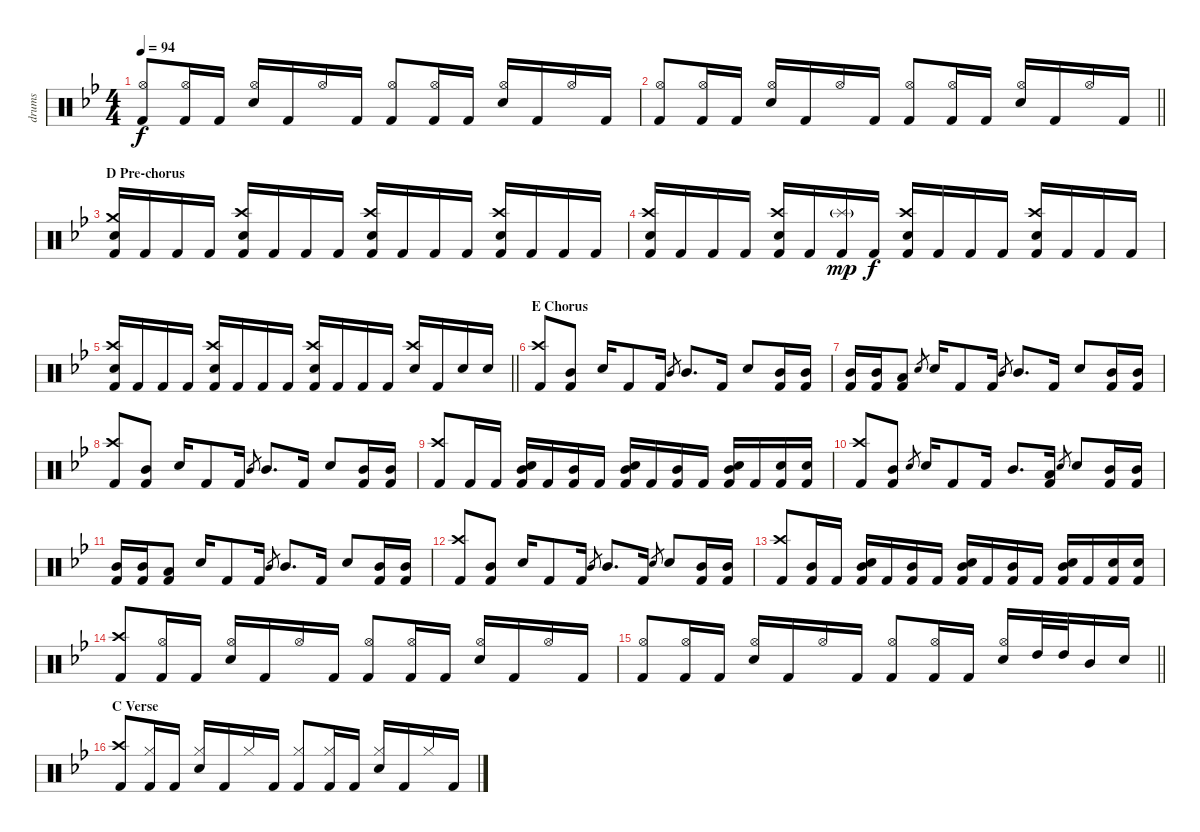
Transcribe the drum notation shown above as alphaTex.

\track ("drums" "drums") {instrument percussion}
\staff {score}
\articulation defaults
\ts (4 4)
\tempo 94
\clef neutral
\ks gminor
("Hi-Hat (open)" "Kick (hit) 2").8{dy f beam Up} ("Hi-Hat (open)" "Kick (hit) 2").16{beam Up} "Kick (hit) 2".16{beam Up} ("Snare (hit) 2" "Hi-Hat (open)").16{beam Up} "Kick (hit) 2".16{beam Up} "Hi-Hat (open)".16{beam Up} "Kick (hit) 2".16{beam Up} ("Hi-Hat (open)" "Kick (hit) 2").8{beam Up} ("Hi-Hat (open)" "Kick (hit) 2").16{beam Up} "Kick (hit) 2".16{beam Up} ("Snare (hit) 2" "Hi-Hat (open)").16{beam Up} "Kick (hit) 2".16{beam Up} "Hi-Hat (open)".16{beam Up} "Kick (hit) 2".16{beam Up} |
\barLineRight lightlight
("Hi-Hat (open)" "Kick (hit) 2").8{beam Up} ("Hi-Hat (open)" "Kick (hit) 2").16{beam Up} "Kick (hit) 2".16{beam Up} ("Snare (hit) 2" "Hi-Hat (open)").16{beam Up} "Kick (hit) 2".16{beam Up} "Hi-Hat (open)".16{beam Up} "Kick (hit) 2".16{beam Up} ("Hi-Hat (open)" "Kick (hit) 2").8{beam Up} ("Hi-Hat (open)" "Kick (hit) 2").16{beam Up} "Kick (hit) 2".16{beam Up} ("Snare (hit) 2" "Hi-Hat (open)").16{beam Up} "Kick (hit) 2".16{beam Up} "Hi-Hat (open)".16{beam Up} "Kick (hit) 2".16{beam Up} |
\section ("" "D Pre-chorus")
("Crash medium (hit)" "Snare (hit) 2" "Kick (hit) 2").16{beam Up} "Kick (hit) 2".16{beam Up} "Kick (hit) 2".16{beam Up} "Kick (hit) 2".16{beam Up} ("Crash high (hit)" "Snare (hit) 2" "Kick (hit) 2").16{beam Up} "Kick (hit) 2".16{beam Up} "Kick (hit) 2".16{beam Up} "Kick (hit) 2".16{beam Up} ("Crash high (hit)" "Snare (hit) 2" "Kick (hit) 2").16{beam Up} "Kick (hit) 2".16{beam Up} "Kick (hit) 2".16{beam Up} "Kick (hit) 2".16{beam Up} ("Crash high (hit)" "Snare (hit) 2" "Kick (hit) 2").16{beam Up} "Kick (hit) 2".16{beam Up} "Kick (hit) 2".16{beam Up} "Kick (hit) 2".16{beam Up} |
("Crash high (hit)" "Snare (hit) 2" "Kick (hit) 2").16{beam Up} "Kick (hit) 2".16{beam Up} "Kick (hit) 2".16{beam Up} "Kick (hit) 2".16{beam Up} ("Crash high (hit)" "Snare (hit) 2" "Kick (hit) 2").16{beam Up} "Kick (hit) 2".16{beam Up} ("Splash (hit)"{g} "Kick (hit) 2").16{dy mp beam Up} "Kick (hit) 2".16{dy f beam Up} ("Crash high (hit)" "Snare (hit) 2" "Kick (hit) 2").16{beam Up} "Kick (hit) 2".16{beam Up} "Kick (hit) 2".16{beam Up} "Kick (hit) 2".16{beam Up} ("Crash high (hit)" "Snare (hit) 2" "Kick (hit) 2").16{beam Up} "Kick (hit) 2".16{beam Up} "Kick (hit) 2".16{beam Up} "Kick (hit) 2".16{beam Up} |
\barLineRight lightlight
("Crash high (hit)" "Snare (hit) 2" "Kick (hit) 2").16{beam Up} "Kick (hit) 2".16{beam Up} "Kick (hit) 2".16{beam Up} "Kick (hit) 2".16{beam Up} ("Crash high (hit)" "Snare (hit) 2" "Kick (hit) 2").16{beam Up} "Kick (hit) 2".16{beam Up} "Kick (hit) 2".16{beam Up} "Kick (hit) 2".16{beam Up} ("Crash high (hit)" "Snare (hit) 2" "Kick (hit) 2").16{beam Up} "Kick (hit) 2".16{beam Up} "Kick (hit) 2".16{beam Up} "Kick (hit) 2".16{beam Up} ("Crash high (hit)" "Snare (hit) 2").16{beam Up} "Kick (hit) 2".16{beam Up} "Snare (hit) 2".16{beam Up} "Snare (hit) 2".16{beam Up} |
\section ("" "E Chorus")
("Crash high (hit)" "Kick (hit) 2").8{beam Up} ("Mid Tom (hit)" "Kick (hit) 2").8{beam Up} "Snare (hit) 2".16 "Kick (hit) 2".8 "Kick (hit) 2".16 "Mid Tom (hit)".8{gr} "Mid Tom (hit)".8{d beam Up} "Kick (hit) 2".16{beam Up} "Snare (hit) 2".8{beam Up} ("Mid Tom (hit)" "Kick (hit) 2").16{beam Up} ("Mid Tom (hit)" "Kick (hit) 2").16{beam Up} |
("Mid Tom (hit)" "Kick (hit) 2").16{beam Up} ("Mid Tom (hit)" "Kick (hit) 2").16{beam Up} ("Low Tom (hit)" "Kick (hit) 2").8{beam Up} "Snare (hit) 2".8{gr} "Snare (hit) 2".16 "Kick (hit) 2".8 "Kick (hit) 2".16 "Mid Tom (hit)".8{gr} "Mid Tom (hit)".8{d beam Up} "Kick (hit) 2".16{beam Up} "Snare (hit) 2".8{beam Up} ("Mid Tom (hit)" "Kick (hit) 2").16{beam Up} ("Mid Tom (hit)" "Kick (hit) 2").16{beam Up} |
("Crash high (hit)" "Kick (hit) 2").8{beam Up} ("Mid Tom (hit)" "Kick (hit) 2").8{beam Up} "Snare (hit) 2".16 "Kick (hit) 2".8 "Kick (hit) 2".16 "Mid Tom (hit)".8{gr} "Mid Tom (hit)".8{d beam Up} "Kick (hit) 2".16{beam Up} "Snare (hit) 2".8{beam Up} ("Mid Tom (hit)" "Kick (hit) 2").16{beam Up} ("Mid Tom (hit)" "Kick (hit) 2").16{beam Up} |
("Crash high (hit)" "Kick (hit) 2").8{beam Up} "Kick (hit) 2".16{beam Up} "Kick (hit) 2".16{beam Up} ("Mid Tom (hit)" "Snare (hit) 2" "Kick (hit) 2").16{beam Up} "Kick (hit) 2".16{beam Up} ("Mid Tom (hit)" "Kick (hit) 2").16{beam Up} "Kick (hit) 2".16{beam Up} ("Mid Tom (hit)" "Snare (hit) 2" "Kick (hit) 2").16{beam Up} "Kick (hit) 2".16{beam Up} ("Mid Tom (hit)" "Kick (hit) 2").16{beam Up} "Kick (hit) 2".16{beam Up} ("Mid Tom (hit)" "Snare (hit) 2" "Kick (hit) 2").16{beam Up} "Kick (hit) 2".16{beam Up} ("Snare (hit) 2" "Kick (hit) 2").16{beam Up} ("Snare (hit) 2" "Kick (hit) 2").16{beam Up} |
("Crash high (hit)" "Kick (hit) 2").8{beam Up} ("Mid Tom (hit)" "Kick (hit) 2").8{beam Up} "Snare (hit) 2".8{gr} "Snare (hit) 2".16 "Kick (hit) 2".8 "Kick (hit) 2".16 "Mid Tom (hit)".8{d beam Up} ("Low Tom (hit)" "Kick (hit) 2").16{beam Up} "Snare (hit) 2".8{gr} "Snare (hit) 2".8{beam Up} ("Mid Tom (hit)" "Kick (hit) 2").16{beam Up} ("Mid Tom (hit)" "Kick (hit) 2").16{beam Up} |
("Mid Tom (hit)" "Kick (hit) 2").16{beam Up} ("Mid Tom (hit)" "Kick (hit) 2").16{beam Up} ("Low Tom (hit)" "Kick (hit) 2").8{beam Up} "Snare (hit) 2".16 "Kick (hit) 2".8 "Kick (hit) 2".16 "Mid Tom (hit)".8{gr} "Mid Tom (hit)".8{d beam Up} "Kick (hit) 2".16{beam Up} "Snare (hit) 2".8{beam Up} ("Mid Tom (hit)" "Kick (hit) 2").16{beam Up} ("Mid Tom (hit)" "Kick (hit) 2").16{beam Up} |
("Crash high (hit)" "Kick (hit) 2").8{beam Up} ("Mid Tom (hit)" "Kick (hit) 2").8{beam Up} "Snare (hit) 2".16 "Kick (hit) 2".8 "Kick (hit) 2".16 "Mid Tom (hit)".8{gr} "Mid Tom (hit)".8{d beam Up} "Kick (hit) 2".16{beam Up} "Snare (hit) 2".8{gr} "Snare (hit) 2".8{beam Up} ("Mid Tom (hit)" "Kick (hit) 2").16{beam Up} ("Mid Tom (hit)" "Kick (hit) 2").16{beam Up} |
("Crash high (hit)" "Kick (hit) 2").8{beam Up} ("Mid Tom (hit)" "Kick (hit) 2").16{beam Up} "Kick (hit) 2".16{beam Up} ("Mid Tom (hit)" "Snare (hit) 2" "Kick (hit) 2").16{beam Up} "Kick (hit) 2".16{beam Up} ("Mid Tom (hit)" "Kick (hit) 2").16{beam Up} "Kick (hit) 2".16{beam Up} ("Mid Tom (hit)" "Snare (hit) 2" "Kick (hit) 2").16{beam Up} "Kick (hit) 2".16{beam Up} ("Mid Tom (hit)" "Kick (hit) 2").16{beam Up} "Kick (hit) 2".16{beam Up} ("Mid Tom (hit)" "Snare (hit) 2" "Kick (hit) 2").16{beam Up} "Kick (hit) 2".16{beam Up} ("Snare (hit) 2" "Kick (hit) 2").16{beam Up} ("Snare (hit) 2" "Kick (hit) 2").16{beam Up} |
("Crash high (hit)" "Kick (hit) 2").8{beam Up} ("Hi-Hat (open)" "Kick (hit) 2").16{beam Up} "Kick (hit) 2".16{beam Up} ("Snare (hit) 2" "Hi-Hat (open)").16{beam Up} "Kick (hit) 2".16{beam Up} "Hi-Hat (open)".16{beam Up} "Kick (hit) 2".16{beam Up} ("Hi-Hat (open)" "Kick (hit) 2").8{beam Up} ("Hi-Hat (open)" "Kick (hit) 2").16{beam Up} "Kick (hit) 2".16{beam Up} ("Snare (hit) 2" "Hi-Hat (open)").16{beam Up} "Kick (hit) 2".16{beam Up} "Hi-Hat (open)".16{beam Up} "Kick (hit) 2".16{beam Up} |
\barLineRight lightlight
("Hi-Hat (open)" "Kick (hit) 2").8{beam Up} ("Hi-Hat (open)" "Kick (hit) 2").16{beam Up} "Kick (hit) 2".16{beam Up} ("Snare (hit) 2" "Hi-Hat (open)").16{beam Up} "Kick (hit) 2".16{beam Up} "Hi-Hat (open)".16{beam Up} "Kick (hit) 2".16{beam Up} ("Hi-Hat (open)" "Kick (hit) 2").8{beam Up} ("Hi-Hat (open)" "Kick (hit) 2").16{beam Up} "Kick (hit) 2".16{beam Up} ("Snare (hit) 2" "Hi-Hat (open)").16{beam Up} "High Tom (hit)".32{beam Up} "High Tom (hit)".32{beam Up} "Mid Tom (hit)".16{beam Up} "Snare (hit) 2".16{beam Up} |
\section ("" "C Verse")
("Crash high (hit)" "Kick (hit) 2").8{beam Up} ("Hi-Hat (closed)" "Kick (hit) 2").16{beam Up} "Kick (hit) 2".16{beam Up} ("Snare (hit) 2" "Hi-Hat (closed)").16{beam Up} "Kick (hit) 2".16{beam Up} "Hi-Hat (closed)".16{beam Up} "Kick (hit) 2".16{beam Up} ("Hi-Hat (closed)" "Kick (hit) 2").8{beam Up} ("Hi-Hat (closed)" "Kick (hit) 2").16{beam Up} "Kick (hit) 2".16{beam Up} ("Snare (hit) 2" "Hi-Hat (closed)").16{beam Up} "Kick (hit) 2".16{beam Up} "Hi-Hat (closed)".16{beam Up} "Kick (hit) 2".16{beam Up}
